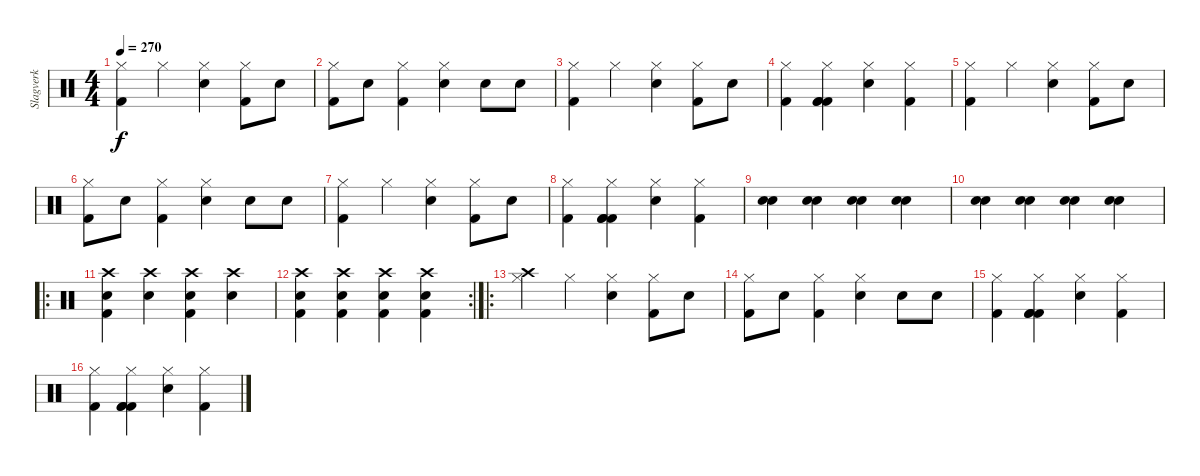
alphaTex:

\track ("Slagverk" "Slagverk") {instrument percussion}
\staff {score}
\articulation defaults
\ts (4 4)
\tempo 270
\clef neutral
\ks c
("Hi-Hat (closed)" "Kick (hit) 2").4{dy f} "Hi-Hat (closed)".4 ("Hi-Hat (closed)" "Electric Snare (hit)").4 ("Hi-Hat (closed)" "Kick (hit) 2").8 "Electric Snare (hit)".8 |
("Hi-Hat (closed)" "Kick (hit) 2").8 "Electric Snare (hit)".8 ("Hi-Hat (closed)" "Kick (hit) 2").4 ("Hi-Hat (closed)" "Electric Snare (hit)").4 "Electric Snare (hit)".8 "Electric Snare (hit)".8 |
("Hi-Hat (closed)" "Kick (hit) 2").4 "Hi-Hat (closed)".4 ("Hi-Hat (closed)" "Electric Snare (hit)").4 ("Hi-Hat (closed)" "Kick (hit) 2").8 "Electric Snare (hit)".8 |
("Hi-Hat (closed)" "Kick (hit) 2").4 ("Hi-Hat (closed)" "Kick (hit) 2" "Kick (hit) 2" "Kick (hit) 2").4 ("Hi-Hat (closed)" "Electric Snare (hit)").4 ("Hi-Hat (closed)" "Kick (hit) 2").4 |
("Hi-Hat (closed)" "Kick (hit) 2").4 "Hi-Hat (closed)".4 ("Hi-Hat (closed)" "Electric Snare (hit)").4 ("Hi-Hat (closed)" "Kick (hit) 2").8 "Electric Snare (hit)".8 |
("Hi-Hat (closed)" "Kick (hit) 2").8 "Electric Snare (hit)".8 ("Hi-Hat (closed)" "Kick (hit) 2").4 ("Hi-Hat (closed)" "Electric Snare (hit)").4 "Electric Snare (hit)".8 "Electric Snare (hit)".8 |
("Hi-Hat (closed)" "Kick (hit) 2").4 "Hi-Hat (closed)".4 ("Hi-Hat (closed)" "Electric Snare (hit)").4 ("Hi-Hat (closed)" "Kick (hit) 2").8 "Electric Snare (hit)".8 |
("Hi-Hat (closed)" "Kick (hit) 2").4 ("Hi-Hat (closed)" "Kick (hit) 2" "Kick (hit) 2" "Kick (hit) 2").4 ("Hi-Hat (closed)" "Electric Snare (hit)").4 ("Hi-Hat (closed)" "Kick (hit) 2").4 |
("Electric Snare (hit)" "Snare (hit) 2").4 ("Electric Snare (hit)" "Snare (hit) 2").4 ("Electric Snare (hit)" "Snare (hit) 2").4 ("Electric Snare (hit)" "Snare (hit) 2").4 |
("Electric Snare (hit)" "Snare (hit) 2").4 ("Electric Snare (hit)" "Snare (hit) 2").4 ("Electric Snare (hit)" "Snare (hit) 2").4 ("Electric Snare (hit)" "Snare (hit) 2").4 |
\ro
("Crash high (hit)" "Electric Snare (hit)" "Kick (hit) 2").4 ("Crash high (hit)" "Electric Snare (hit)").4 ("Crash high (hit)" "Electric Snare (hit)" "Kick (hit) 2").4 ("Crash high (hit)" "Electric Snare (hit)").4 |
\rc 2
("Crash high (hit)" "Electric Snare (hit)" "Kick (hit) 2").4 ("Crash high (hit)" "Electric Snare (hit)" "Kick (hit) 2").4 ("Crash high (hit)" "Electric Snare (hit)" "Kick (hit) 2").4 ("Crash high (hit)" "Electric Snare (hit)" "Kick (hit) 2").4 |
\ro
("Hi-Hat (closed)" "Crash high (hit)").4 "Hi-Hat (closed)".4 ("Hi-Hat (closed)" "Electric Snare (hit)").4 ("Hi-Hat (closed)" "Kick (hit) 2").8 "Electric Snare (hit)".8 |
("Hi-Hat (closed)" "Kick (hit) 2").8 "Electric Snare (hit)".8 ("Hi-Hat (closed)" "Kick (hit) 2").4 ("Hi-Hat (closed)" "Electric Snare (hit)").4 "Electric Snare (hit)".8 "Electric Snare (hit)".8 |
("Hi-Hat (closed)" "Kick (hit) 2").4 ("Hi-Hat (closed)" "Kick (hit) 2" "Kick (hit) 2" "Kick (hit) 2").4 ("Hi-Hat (closed)" "Electric Snare (hit)").4 ("Hi-Hat (closed)" "Kick (hit) 2").4 |
("Hi-Hat (closed)" "Kick (hit) 2").4 ("Hi-Hat (closed)" "Kick (hit) 2" "Kick (hit) 2" "Kick (hit) 2").4 ("Hi-Hat (closed)" "Electric Snare (hit)").4 ("Hi-Hat (closed)" "Kick (hit) 2").4
